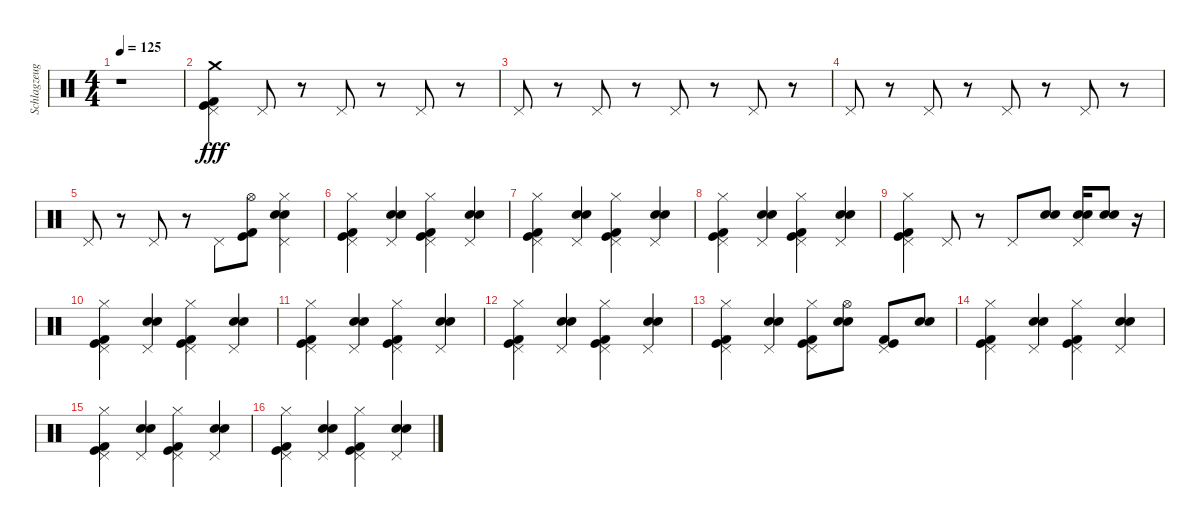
\track ("Schlagzeug" "Schlagzeug") {instrument percussion}
\staff {score}
\articulation defaults
\ts (4 4)
\tempo 125
\clef neutral
\ks c
r.1{dy fff} |
("Pedal Hi-Hat (hit)" "Kick (hit)" "Kick (hit) 2" "Crash medium (hit)").4 "Pedal Hi-Hat (hit)".8 r.8 "Pedal Hi-Hat (hit)".8 r.8 "Pedal Hi-Hat (hit)".8 r.8 |
"Pedal Hi-Hat (hit)".8 r.8 "Pedal Hi-Hat (hit)".8 r.8 "Pedal Hi-Hat (hit)".8 r.8 "Pedal Hi-Hat (hit)".8 r.8 |
"Pedal Hi-Hat (hit)".8 r.8 "Pedal Hi-Hat (hit)".8 r.8 "Pedal Hi-Hat (hit)".8 r.8 "Pedal Hi-Hat (hit)".8 r.8 |
"Pedal Hi-Hat (hit)".8 r.8 "Pedal Hi-Hat (hit)".8 r.8 "Pedal Hi-Hat (hit)".8 ("Kick (hit)" "Hi-Hat (open)" "Kick (hit) 2").8 ("Pedal Hi-Hat (hit)" "Electric Snare (hit)" "Snare (hit) 2" "Hi-Hat (closed)").4 |
("Pedal Hi-Hat (hit)" "Kick (hit)" "Kick (hit) 2" "Hi-Hat (closed)").4 ("Pedal Hi-Hat (hit)" "Snare (hit) 2" "Electric Snare (hit)").4 ("Pedal Hi-Hat (hit)" "Kick (hit)" "Kick (hit) 2" "Hi-Hat (closed)").4 ("Pedal Hi-Hat (hit)" "Snare (hit) 2" "Electric Snare (hit)").4 |
("Pedal Hi-Hat (hit)" "Kick (hit)" "Kick (hit) 2" "Hi-Hat (closed)").4 ("Pedal Hi-Hat (hit)" "Snare (hit) 2" "Electric Snare (hit)").4 ("Pedal Hi-Hat (hit)" "Kick (hit)" "Kick (hit) 2" "Hi-Hat (closed)").4 ("Pedal Hi-Hat (hit)" "Snare (hit) 2" "Electric Snare (hit)").4 |
("Pedal Hi-Hat (hit)" "Kick (hit)" "Kick (hit) 2" "Hi-Hat (closed)").4 ("Pedal Hi-Hat (hit)" "Snare (hit) 2" "Electric Snare (hit)").4 ("Pedal Hi-Hat (hit)" "Kick (hit)" "Kick (hit) 2" "Hi-Hat (closed)").4 ("Pedal Hi-Hat (hit)" "Snare (hit) 2" "Electric Snare (hit)").4 |
("Pedal Hi-Hat (hit)" "Kick (hit)" "Kick (hit) 2" "Hi-Hat (closed)").4 "Pedal Hi-Hat (hit)".8 r.8 "Pedal Hi-Hat (hit)".8 ("Electric Snare (hit)" "Snare (hit) 2").8 ("Pedal Hi-Hat (hit)" "Electric Snare (hit)" "Snare (hit) 2").16 ("Snare (hit) 2" "Electric Snare (hit)").8 r.16 |
("Pedal Hi-Hat (hit)" "Kick (hit)" "Kick (hit) 2" "Hi-Hat (closed)").4 ("Pedal Hi-Hat (hit)" "Snare (hit) 2" "Electric Snare (hit)").4 ("Pedal Hi-Hat (hit)" "Kick (hit)" "Kick (hit) 2" "Hi-Hat (closed)").4 ("Pedal Hi-Hat (hit)" "Snare (hit) 2" "Electric Snare (hit)").4 |
("Pedal Hi-Hat (hit)" "Kick (hit)" "Kick (hit) 2" "Hi-Hat (closed)").4 ("Pedal Hi-Hat (hit)" "Snare (hit) 2" "Electric Snare (hit)").4 ("Pedal Hi-Hat (hit)" "Kick (hit)" "Kick (hit) 2" "Hi-Hat (closed)").4 ("Pedal Hi-Hat (hit)" "Snare (hit) 2" "Electric Snare (hit)").4 |
("Pedal Hi-Hat (hit)" "Kick (hit)" "Kick (hit) 2" "Hi-Hat (closed)").4 ("Pedal Hi-Hat (hit)" "Snare (hit) 2" "Electric Snare (hit)").4 ("Pedal Hi-Hat (hit)" "Kick (hit)" "Kick (hit) 2" "Hi-Hat (closed)").4 ("Pedal Hi-Hat (hit)" "Snare (hit) 2" "Electric Snare (hit)").4 |
("Pedal Hi-Hat (hit)" "Kick (hit)" "Kick (hit) 2" "Hi-Hat (closed)").4 ("Pedal Hi-Hat (hit)" "Snare (hit) 2" "Electric Snare (hit)").4 ("Pedal Hi-Hat (hit)" "Kick (hit)" "Kick (hit) 2" "Hi-Hat (closed)").8 ("Snare (hit) 2" "Hi-Hat (open)" "Electric Snare (hit)").8 ("Pedal Hi-Hat (hit)" "Kick (hit)" "Kick (hit) 2").8 ("Snare (hit) 2" "Electric Snare (hit)").8 |
("Pedal Hi-Hat (hit)" "Kick (hit)" "Kick (hit) 2" "Hi-Hat (closed)").4 ("Pedal Hi-Hat (hit)" "Snare (hit) 2" "Electric Snare (hit)").4 ("Pedal Hi-Hat (hit)" "Kick (hit)" "Kick (hit) 2" "Hi-Hat (closed)").4 ("Pedal Hi-Hat (hit)" "Snare (hit) 2" "Electric Snare (hit)").4 |
("Pedal Hi-Hat (hit)" "Kick (hit)" "Kick (hit) 2" "Hi-Hat (closed)").4 ("Pedal Hi-Hat (hit)" "Snare (hit) 2" "Electric Snare (hit)").4 ("Pedal Hi-Hat (hit)" "Kick (hit)" "Kick (hit) 2" "Hi-Hat (closed)").4 ("Pedal Hi-Hat (hit)" "Snare (hit) 2" "Electric Snare (hit)").4 |
("Pedal Hi-Hat (hit)" "Kick (hit)" "Kick (hit) 2" "Hi-Hat (closed)").4 ("Pedal Hi-Hat (hit)" "Snare (hit) 2" "Electric Snare (hit)").4 ("Pedal Hi-Hat (hit)" "Kick (hit)" "Kick (hit) 2" "Hi-Hat (closed)").4 ("Pedal Hi-Hat (hit)" "Snare (hit) 2" "Electric Snare (hit)").4
